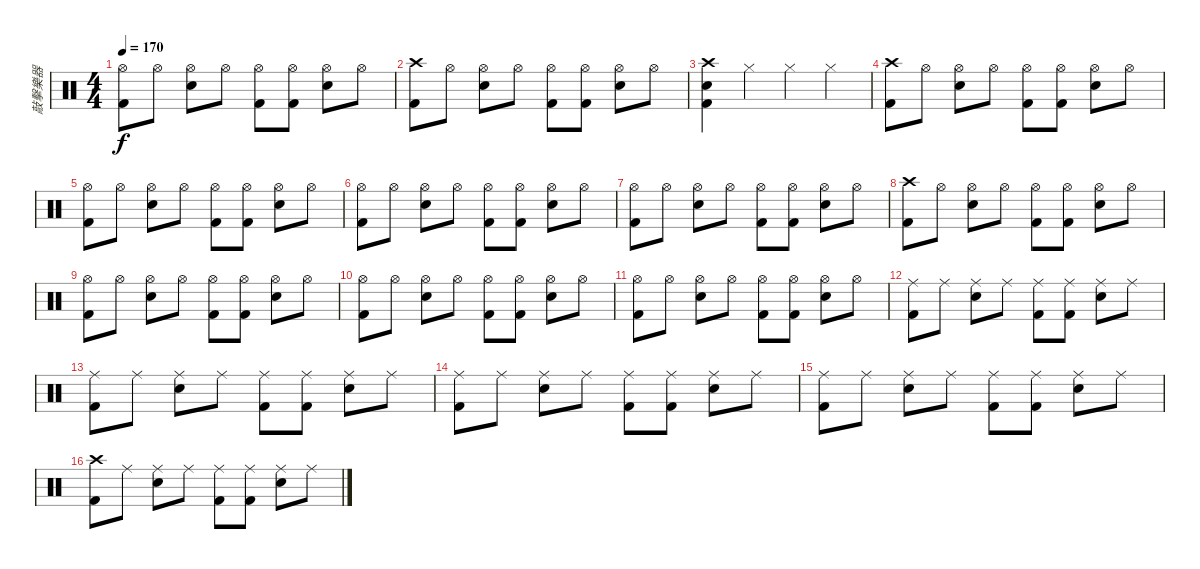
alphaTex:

\track ("敲擊樂器" "敲擊樂器") {instrument percussion}
\staff {score}
\articulation defaults
\ts (4 4)
\tempo 170
\clef neutral
\ks c
("Hi-Hat (open)" "Kick (hit) 2").8{dy f} "Hi-Hat (open)".8 ("Hi-Hat (open)" "Snare (hit) 2").8 "Hi-Hat (open)".8 ("Hi-Hat (open)" "Kick (hit) 2").8 ("Hi-Hat (open)" "Kick (hit) 2").8 ("Hi-Hat (open)" "Snare (hit) 2").8 "Hi-Hat (open)".8 |
("Crash high (hit)" "Kick (hit) 2").8 "Hi-Hat (open)".8 ("Hi-Hat (open)" "Snare (hit) 2").8 "Hi-Hat (open)".8 ("Hi-Hat (open)" "Kick (hit) 2").8 ("Hi-Hat (open)" "Kick (hit) 2").8 ("Hi-Hat (open)" "Snare (hit) 2").8 "Hi-Hat (open)".8 |
("Crash high (hit)" "Kick (hit) 2" "Snare (hit) 2").4 "Hi-Hat (closed)".4 "Hi-Hat (closed)".4 "Hi-Hat (closed)".4 |
("Crash high (hit)" "Kick (hit) 2").8 "Hi-Hat (open)".8 ("Hi-Hat (open)" "Snare (hit) 2").8 "Hi-Hat (open)".8 ("Hi-Hat (open)" "Kick (hit) 2").8 ("Hi-Hat (open)" "Kick (hit) 2").8 ("Hi-Hat (open)" "Snare (hit) 2").8 "Hi-Hat (open)".8 |
("Hi-Hat (open)" "Kick (hit) 2").8 "Hi-Hat (open)".8 ("Hi-Hat (open)" "Snare (hit) 2").8 "Hi-Hat (open)".8 ("Hi-Hat (open)" "Kick (hit) 2").8 ("Hi-Hat (open)" "Kick (hit) 2").8 ("Hi-Hat (open)" "Snare (hit) 2").8 "Hi-Hat (open)".8 |
("Hi-Hat (open)" "Kick (hit) 2").8 "Hi-Hat (open)".8 ("Hi-Hat (open)" "Snare (hit) 2").8 "Hi-Hat (open)".8 ("Hi-Hat (open)" "Kick (hit) 2").8 ("Hi-Hat (open)" "Kick (hit) 2").8 ("Hi-Hat (open)" "Snare (hit) 2").8 "Hi-Hat (open)".8 |
("Hi-Hat (open)" "Kick (hit) 2").8 "Hi-Hat (open)".8 ("Hi-Hat (open)" "Snare (hit) 2").8 "Hi-Hat (open)".8 ("Hi-Hat (open)" "Kick (hit) 2").8 ("Hi-Hat (open)" "Kick (hit) 2").8 ("Hi-Hat (open)" "Snare (hit) 2").8 "Hi-Hat (open)".8 |
("Crash high (hit)" "Kick (hit) 2").8 "Hi-Hat (open)".8 ("Hi-Hat (open)" "Snare (hit) 2").8 "Hi-Hat (open)".8 ("Hi-Hat (open)" "Kick (hit) 2").8 ("Hi-Hat (open)" "Kick (hit) 2").8 ("Hi-Hat (open)" "Snare (hit) 2").8 "Hi-Hat (open)".8 |
("Hi-Hat (open)" "Kick (hit) 2").8 "Hi-Hat (open)".8 ("Hi-Hat (open)" "Snare (hit) 2").8 "Hi-Hat (open)".8 ("Hi-Hat (open)" "Kick (hit) 2").8 ("Hi-Hat (open)" "Kick (hit) 2").8 ("Hi-Hat (open)" "Snare (hit) 2").8 "Hi-Hat (open)".8 |
("Hi-Hat (open)" "Kick (hit) 2").8 "Hi-Hat (open)".8 ("Hi-Hat (open)" "Snare (hit) 2").8 "Hi-Hat (open)".8 ("Hi-Hat (open)" "Kick (hit) 2").8 ("Hi-Hat (open)" "Kick (hit) 2").8 ("Hi-Hat (open)" "Snare (hit) 2").8 "Hi-Hat (open)".8 |
("Hi-Hat (open)" "Kick (hit) 2").8 "Hi-Hat (open)".8 ("Hi-Hat (open)" "Snare (hit) 2").8 "Hi-Hat (open)".8 ("Hi-Hat (open)" "Kick (hit) 2").8 ("Hi-Hat (open)" "Kick (hit) 2").8 ("Hi-Hat (open)" "Snare (hit) 2").8 "Hi-Hat (open)".8 |
("Ride (middle)" "Kick (hit) 2").8 "Ride (middle)".8 ("Ride (middle)" "Snare (hit) 2").8 "Ride (middle)".8 ("Ride (middle)" "Kick (hit) 2").8 ("Ride (middle)" "Kick (hit) 2").8 ("Ride (middle)" "Snare (hit) 2").8 "Ride (middle)".8 |
("Ride (middle)" "Kick (hit) 2").8 "Ride (middle)".8 ("Ride (middle)" "Snare (hit) 2").8 "Ride (middle)".8 ("Ride (middle)" "Kick (hit) 2").8 ("Ride (middle)" "Kick (hit) 2").8 ("Ride (middle)" "Snare (hit) 2").8 "Ride (middle)".8 |
("Ride (middle)" "Kick (hit) 2").8 "Ride (middle)".8 ("Ride (middle)" "Snare (hit) 2").8 "Ride (middle)".8 ("Ride (middle)" "Kick (hit) 2").8 ("Ride (middle)" "Kick (hit) 2").8 ("Ride (middle)" "Snare (hit) 2").8 "Ride (middle)".8 |
("Ride (middle)" "Kick (hit) 2").8 "Ride (middle)".8 ("Ride (middle)" "Snare (hit) 2").8 "Ride (middle)".8 ("Ride (middle)" "Kick (hit) 2").8 ("Ride (middle)" "Kick (hit) 2").8 ("Ride (middle)" "Snare (hit) 2").8 "Ride (middle)".8 |
("Crash high (hit)" "Kick (hit) 2").8 "Ride (middle)".8 ("Ride (middle)" "Snare (hit) 2").8 "Ride (middle)".8 ("Ride (middle)" "Kick (hit) 2").8 ("Ride (middle)" "Kick (hit) 2").8 ("Ride (middle)" "Snare (hit) 2").8 "Ride (middle)".8
